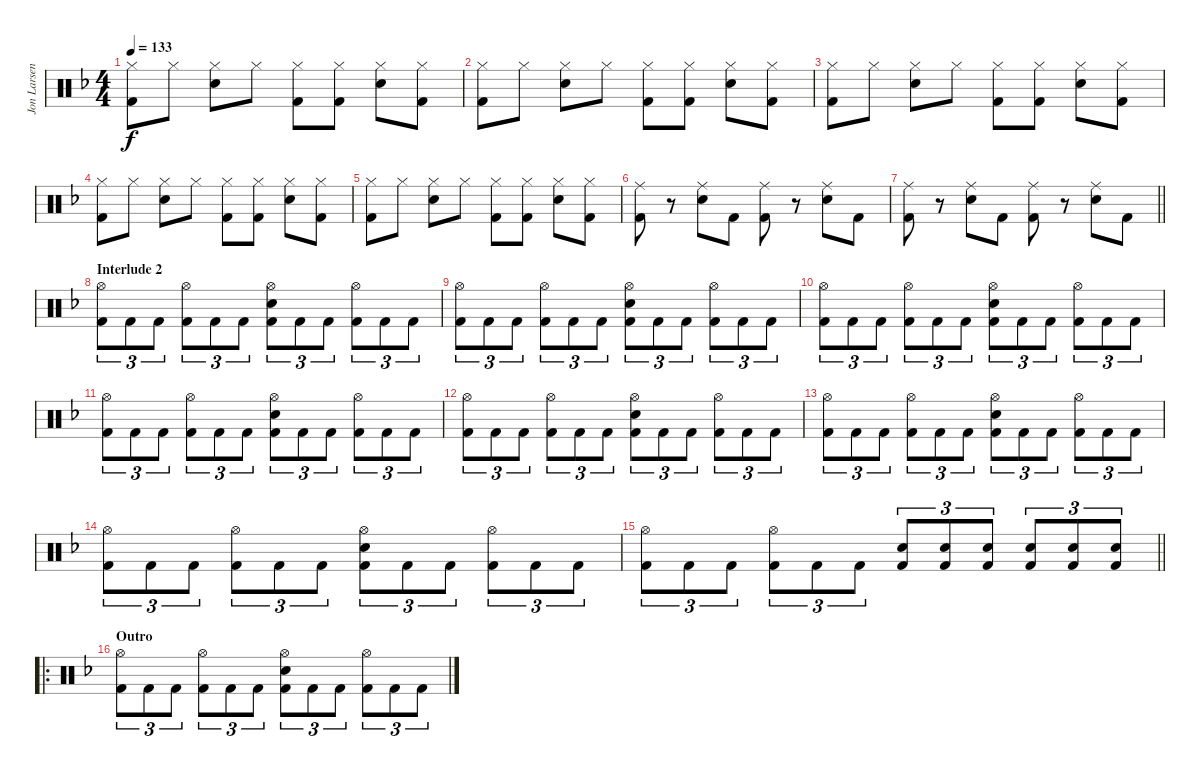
\track ("Jon Larsen" "Jon Larsen") {instrument percussion}
\staff {score}
\articulation defaults
\ts (4 4)
\tempo 133
\clef neutral
\ks f
("Hi-Hat (closed)" "Kick (hit) 2").8{dy f} "Hi-Hat (closed)".8 ("Hi-Hat (closed)" "Electric Snare (hit)").8 "Hi-Hat (closed)".8 ("Hi-Hat (closed)" "Kick (hit) 2").8 ("Hi-Hat (closed)" "Kick (hit) 2").8 ("Hi-Hat (closed)" "Electric Snare (hit)").8 ("Hi-Hat (closed)" "Kick (hit) 2").8 |
("Hi-Hat (closed)" "Kick (hit) 2").8 "Hi-Hat (closed)".8 ("Hi-Hat (closed)" "Electric Snare (hit)").8 "Hi-Hat (closed)".8 ("Hi-Hat (closed)" "Kick (hit) 2").8 ("Hi-Hat (closed)" "Kick (hit) 2").8 ("Hi-Hat (closed)" "Electric Snare (hit)").8 ("Hi-Hat (closed)" "Kick (hit) 2").8 |
("Hi-Hat (closed)" "Kick (hit) 2").8 "Hi-Hat (closed)".8 ("Hi-Hat (closed)" "Electric Snare (hit)").8 "Hi-Hat (closed)".8 ("Hi-Hat (closed)" "Kick (hit) 2").8 ("Hi-Hat (closed)" "Kick (hit) 2").8 ("Hi-Hat (closed)" "Electric Snare (hit)").8 ("Hi-Hat (closed)" "Kick (hit) 2").8 |
("Hi-Hat (closed)" "Kick (hit) 2").8 "Hi-Hat (closed)".8 ("Hi-Hat (closed)" "Electric Snare (hit)").8 "Hi-Hat (closed)".8 ("Hi-Hat (closed)" "Kick (hit) 2").8 ("Hi-Hat (closed)" "Kick (hit) 2").8 ("Hi-Hat (closed)" "Electric Snare (hit)").8 ("Hi-Hat (closed)" "Kick (hit) 2").8 |
("Hi-Hat (closed)" "Kick (hit) 2").8 "Hi-Hat (closed)".8 ("Hi-Hat (closed)" "Electric Snare (hit)").8 "Hi-Hat (closed)".8 ("Hi-Hat (closed)" "Kick (hit) 2").8 ("Hi-Hat (closed)" "Kick (hit) 2").8 ("Hi-Hat (closed)" "Electric Snare (hit)").8 ("Hi-Hat (closed)" "Kick (hit) 2").8 |
("Ride (middle)" "Kick (hit) 2").8 r.8 ("Ride (middle)" "Electric Snare (hit)").8 "Kick (hit) 2".8 ("Ride (middle)" "Kick (hit) 2").8 r.8 ("Ride (middle)" "Electric Snare (hit)").8 "Kick (hit) 2".8 |
\barLineRight lightlight
("Ride (middle)" "Kick (hit) 2").8 r.8 ("Ride (middle)" "Electric Snare (hit)").8 "Kick (hit) 2".8 ("Ride (middle)" "Kick (hit) 2").8 r.8 ("Ride (middle)" "Electric Snare (hit)").8 "Kick (hit) 2".8 |
\section ("" "Interlude 2")
("Hi-Hat (open)" "Kick (hit) 2").8{tu (3 2)} "Kick (hit) 2".8{tu (3 2)} "Kick (hit) 2".8{tu (3 2)} ("Hi-Hat (open)" "Kick (hit) 2").8{tu (3 2)} "Kick (hit) 2".8{tu (3 2)} "Kick (hit) 2".8{tu (3 2)} ("Hi-Hat (open)" "Kick (hit) 2" "Electric Snare (hit)").8{tu (3 2)} "Kick (hit) 2".8{tu (3 2)} "Kick (hit) 2".8{tu (3 2)} ("Hi-Hat (open)" "Kick (hit) 2").8{tu (3 2)} "Kick (hit) 2".8{tu (3 2)} "Kick (hit) 2".8{tu (3 2)} |
("Hi-Hat (open)" "Kick (hit) 2").8{tu (3 2)} "Kick (hit) 2".8{tu (3 2)} "Kick (hit) 2".8{tu (3 2)} ("Hi-Hat (open)" "Kick (hit) 2").8{tu (3 2)} "Kick (hit) 2".8{tu (3 2)} "Kick (hit) 2".8{tu (3 2)} ("Hi-Hat (open)" "Kick (hit) 2" "Electric Snare (hit)").8{tu (3 2)} "Kick (hit) 2".8{tu (3 2)} "Kick (hit) 2".8{tu (3 2)} ("Hi-Hat (open)" "Kick (hit) 2").8{tu (3 2)} "Kick (hit) 2".8{tu (3 2)} "Kick (hit) 2".8{tu (3 2)} |
("Hi-Hat (open)" "Kick (hit) 2").8{tu (3 2)} "Kick (hit) 2".8{tu (3 2)} "Kick (hit) 2".8{tu (3 2)} ("Hi-Hat (open)" "Kick (hit) 2").8{tu (3 2)} "Kick (hit) 2".8{tu (3 2)} "Kick (hit) 2".8{tu (3 2)} ("Hi-Hat (open)" "Kick (hit) 2" "Electric Snare (hit)").8{tu (3 2)} "Kick (hit) 2".8{tu (3 2)} "Kick (hit) 2".8{tu (3 2)} ("Hi-Hat (open)" "Kick (hit) 2").8{tu (3 2)} "Kick (hit) 2".8{tu (3 2)} "Kick (hit) 2".8{tu (3 2)} |
("Hi-Hat (open)" "Kick (hit) 2").8{tu (3 2)} "Kick (hit) 2".8{tu (3 2)} "Kick (hit) 2".8{tu (3 2)} ("Hi-Hat (open)" "Kick (hit) 2").8{tu (3 2)} "Kick (hit) 2".8{tu (3 2)} "Kick (hit) 2".8{tu (3 2)} ("Hi-Hat (open)" "Kick (hit) 2" "Electric Snare (hit)").8{tu (3 2)} "Kick (hit) 2".8{tu (3 2)} "Kick (hit) 2".8{tu (3 2)} ("Hi-Hat (open)" "Kick (hit) 2").8{tu (3 2)} "Kick (hit) 2".8{tu (3 2)} "Kick (hit) 2".8{tu (3 2)} |
("Hi-Hat (open)" "Kick (hit) 2").8{tu (3 2)} "Kick (hit) 2".8{tu (3 2)} "Kick (hit) 2".8{tu (3 2)} ("Hi-Hat (open)" "Kick (hit) 2").8{tu (3 2)} "Kick (hit) 2".8{tu (3 2)} "Kick (hit) 2".8{tu (3 2)} ("Hi-Hat (open)" "Kick (hit) 2" "Electric Snare (hit)").8{tu (3 2)} "Kick (hit) 2".8{tu (3 2)} "Kick (hit) 2".8{tu (3 2)} ("Hi-Hat (open)" "Kick (hit) 2").8{tu (3 2)} "Kick (hit) 2".8{tu (3 2)} "Kick (hit) 2".8{tu (3 2)} |
("Hi-Hat (open)" "Kick (hit) 2").8{tu (3 2)} "Kick (hit) 2".8{tu (3 2)} "Kick (hit) 2".8{tu (3 2)} ("Hi-Hat (open)" "Kick (hit) 2").8{tu (3 2)} "Kick (hit) 2".8{tu (3 2)} "Kick (hit) 2".8{tu (3 2)} ("Hi-Hat (open)" "Kick (hit) 2" "Electric Snare (hit)").8{tu (3 2)} "Kick (hit) 2".8{tu (3 2)} "Kick (hit) 2".8{tu (3 2)} ("Hi-Hat (open)" "Kick (hit) 2").8{tu (3 2)} "Kick (hit) 2".8{tu (3 2)} "Kick (hit) 2".8{tu (3 2)} |
("Hi-Hat (open)" "Kick (hit) 2").8{tu (3 2)} "Kick (hit) 2".8{tu (3 2)} "Kick (hit) 2".8{tu (3 2)} ("Hi-Hat (open)" "Kick (hit) 2").8{tu (3 2)} "Kick (hit) 2".8{tu (3 2)} "Kick (hit) 2".8{tu (3 2)} ("Hi-Hat (open)" "Kick (hit) 2" "Electric Snare (hit)").8{tu (3 2)} "Kick (hit) 2".8{tu (3 2)} "Kick (hit) 2".8{tu (3 2)} ("Hi-Hat (open)" "Kick (hit) 2").8{tu (3 2)} "Kick (hit) 2".8{tu (3 2)} "Kick (hit) 2".8{tu (3 2)} |
\barLineRight lightlight
("Hi-Hat (open)" "Kick (hit) 2").8{tu (3 2)} "Kick (hit) 2".8{tu (3 2)} "Kick (hit) 2".8{tu (3 2)} ("Hi-Hat (open)" "Kick (hit) 2").8{tu (3 2)} "Kick (hit) 2".8{tu (3 2)} "Kick (hit) 2".8{tu (3 2)} ("Kick (hit) 2" "Electric Snare (hit)").8{tu (3 2)} ("Kick (hit) 2" "Electric Snare (hit)").8{tu (3 2)} ("Kick (hit) 2" "Electric Snare (hit)").8{tu (3 2)} ("Kick (hit) 2" "Electric Snare (hit)").8{tu (3 2)} ("Kick (hit) 2" "Electric Snare (hit)").8{tu (3 2)} ("Kick (hit) 2" "Electric Snare (hit)").8{tu (3 2)} |
\ro
\section ("" "Outro")
("Hi-Hat (open)" "Kick (hit) 2").8{tu (3 2)} "Kick (hit) 2".8{tu (3 2)} "Kick (hit) 2".8{tu (3 2)} ("Hi-Hat (open)" "Kick (hit) 2").8{tu (3 2)} "Kick (hit) 2".8{tu (3 2)} "Kick (hit) 2".8{tu (3 2)} ("Hi-Hat (open)" "Kick (hit) 2" "Electric Snare (hit)").8{tu (3 2)} "Kick (hit) 2".8{tu (3 2)} "Kick (hit) 2".8{tu (3 2)} ("Hi-Hat (open)" "Kick (hit) 2").8{tu (3 2)} "Kick (hit) 2".8{tu (3 2)} "Kick (hit) 2".8{tu (3 2)}
